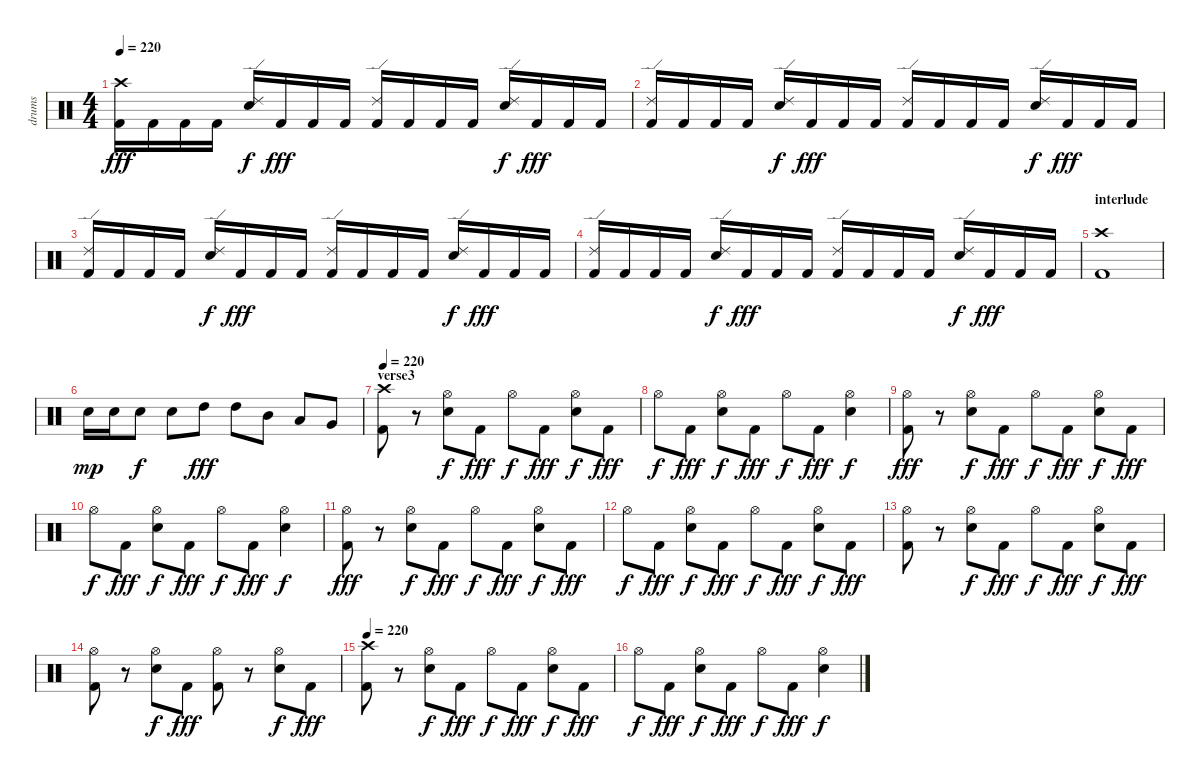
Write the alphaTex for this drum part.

\track ("drums" "drums") {instrument percussion}
\staff {score}
\articulation defaults
\ts (4 4)
\tempo 220
\clef neutral
\ks c
("Crash high (hit)" "Kick (hit) 2").16{dy fff} "Kick (hit) 2".16 "Kick (hit) 2".16 "Kick (hit) 2".16 ("Ride (edge) 2" "Snare (hit) 2").16{dy f} "Kick (hit) 2".16{dy fff} "Kick (hit) 2".16 "Kick (hit) 2".16 ("Ride (edge) 2" "Kick (hit) 2").16 "Kick (hit) 2".16 "Kick (hit) 2".16 "Kick (hit) 2".16 ("Ride (edge) 2" "Snare (hit) 2").16{dy f} "Kick (hit) 2".16{dy fff} "Kick (hit) 2".16 "Kick (hit) 2".16 |
("Ride (edge) 2" "Kick (hit) 2").16 "Kick (hit) 2".16 "Kick (hit) 2".16 "Kick (hit) 2".16 ("Ride (edge) 2" "Snare (hit) 2").16{dy f} "Kick (hit) 2".16{dy fff} "Kick (hit) 2".16 "Kick (hit) 2".16 ("Ride (edge) 2" "Kick (hit) 2").16 "Kick (hit) 2".16 "Kick (hit) 2".16 "Kick (hit) 2".16 ("Ride (edge) 2" "Snare (hit) 2").16{dy f} "Kick (hit) 2".16{dy fff} "Kick (hit) 2".16 "Kick (hit) 2".16 |
("Ride (edge) 2" "Kick (hit) 2").16 "Kick (hit) 2".16 "Kick (hit) 2".16 "Kick (hit) 2".16 ("Ride (edge) 2" "Snare (hit) 2").16{dy f} "Kick (hit) 2".16{dy fff} "Kick (hit) 2".16 "Kick (hit) 2".16 ("Ride (edge) 2" "Kick (hit) 2").16 "Kick (hit) 2".16 "Kick (hit) 2".16 "Kick (hit) 2".16 ("Ride (edge) 2" "Snare (hit) 2").16{dy f} "Kick (hit) 2".16{dy fff} "Kick (hit) 2".16 "Kick (hit) 2".16 |
("Ride (edge) 2" "Kick (hit) 2").16 "Kick (hit) 2".16 "Kick (hit) 2".16 "Kick (hit) 2".16 ("Ride (edge) 2" "Snare (hit) 2").16{dy f} "Kick (hit) 2".16{dy fff} "Kick (hit) 2".16 "Kick (hit) 2".16 ("Ride (edge) 2" "Kick (hit) 2").16 "Kick (hit) 2".16 "Kick (hit) 2".16 "Kick (hit) 2".16 ("Ride (edge) 2" "Snare (hit) 2").16{dy f} "Kick (hit) 2".16{dy fff} "Kick (hit) 2".16 "Kick (hit) 2".16 |
\section ("" "interlude")
("Crash high (hit)" "Kick (hit) 2").1 |
"Snare (hit) 2".16{dy mp} "Snare (hit) 2".16 "Snare (hit) 2".8{dy f} "Snare (hit) 2".8 "High Tom (hit)".8{dy fff} "High Tom (hit)".8 "Mid Tom (hit)".8 "Low Tom (hit)".8 "Very Low Tom (hit)".8 |
\section ("" "verse3")
\tempo 220
("Crash high (hit)" "Kick (hit) 2").8 r.8 ("Hi-Hat (open)" "Snare (hit) 2").8{dy f} "Kick (hit) 2".8{dy fff} "Hi-Hat (open)".8{dy f} "Kick (hit) 2".8{dy fff} ("Hi-Hat (open)" "Snare (hit) 2").8{dy f} "Kick (hit) 2".8{dy fff} |
"Hi-Hat (open)".8{dy f} "Kick (hit) 2".8{dy fff} ("Hi-Hat (open)" "Snare (hit) 2").8{dy f} "Kick (hit) 2".8{dy fff} "Hi-Hat (open)".8{dy f} "Kick (hit) 2".8{dy fff} ("Hi-Hat (open)" "Snare (hit) 2").4{dy f} |
("Hi-Hat (open)" "Kick (hit) 2").8{dy fff} r.8 ("Hi-Hat (open)" "Snare (hit) 2").8{dy f} "Kick (hit) 2".8{dy fff} "Hi-Hat (open)".8{dy f} "Kick (hit) 2".8{dy fff} ("Hi-Hat (open)" "Snare (hit) 2").8{dy f} "Kick (hit) 2".8{dy fff} |
"Hi-Hat (open)".8{dy f} "Kick (hit) 2".8{dy fff} ("Hi-Hat (open)" "Snare (hit) 2").8{dy f} "Kick (hit) 2".8{dy fff} "Hi-Hat (open)".8{dy f} "Kick (hit) 2".8{dy fff} ("Hi-Hat (open)" "Snare (hit) 2").4{dy f} |
("Hi-Hat (open)" "Kick (hit) 2").8{dy fff} r.8 ("Hi-Hat (open)" "Snare (hit) 2").8{dy f} "Kick (hit) 2".8{dy fff} "Hi-Hat (open)".8{dy f} "Kick (hit) 2".8{dy fff} ("Hi-Hat (open)" "Snare (hit) 2").8{dy f} "Kick (hit) 2".8{dy fff} |
"Hi-Hat (open)".8{dy f} "Kick (hit) 2".8{dy fff} ("Hi-Hat (open)" "Snare (hit) 2").8{dy f} "Kick (hit) 2".8{dy fff} "Hi-Hat (open)".8{dy f} "Kick (hit) 2".8{dy fff} ("Hi-Hat (open)" "Snare (hit) 2").8{dy f} "Kick (hit) 2".8{dy fff} |
("Hi-Hat (open)" "Kick (hit) 2").8 r.8 ("Hi-Hat (open)" "Snare (hit) 2").8{dy f} "Kick (hit) 2".8{dy fff} "Hi-Hat (open)".8{dy f} "Kick (hit) 2".8{dy fff} ("Hi-Hat (open)" "Snare (hit) 2").8{dy f} "Kick (hit) 2".8{dy fff} |
("Hi-Hat (open)" "Kick (hit) 2").8 r.8 ("Hi-Hat (open)" "Snare (hit) 2").8{dy f} "Kick (hit) 2".8{dy fff} ("Hi-Hat (open)" "Kick (hit) 2").8 r.8 ("Hi-Hat (open)" "Snare (hit) 2").8{dy f} "Kick (hit) 2".8{dy fff} |
\tempo 220
("Crash high (hit)" "Kick (hit) 2").8 r.8 ("Hi-Hat (open)" "Snare (hit) 2").8{dy f} "Kick (hit) 2".8{dy fff} "Hi-Hat (open)".8{dy f} "Kick (hit) 2".8{dy fff} ("Hi-Hat (open)" "Snare (hit) 2").8{dy f} "Kick (hit) 2".8{dy fff} |
"Hi-Hat (open)".8{dy f} "Kick (hit) 2".8{dy fff} ("Hi-Hat (open)" "Snare (hit) 2").8{dy f} "Kick (hit) 2".8{dy fff} "Hi-Hat (open)".8{dy f} "Kick (hit) 2".8{dy fff} ("Hi-Hat (open)" "Snare (hit) 2").4{dy f}
